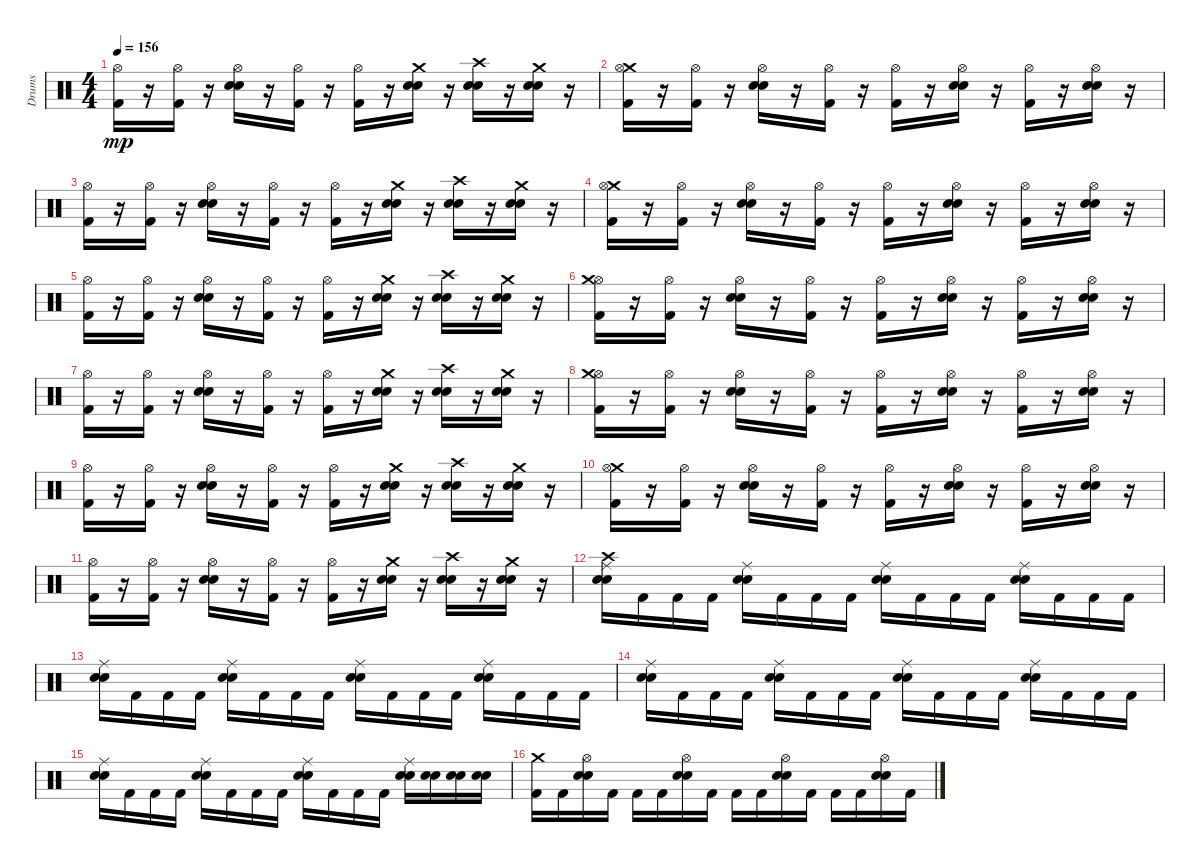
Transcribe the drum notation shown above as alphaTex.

\track ("Drums" "Drums") {instrument percussion}
\staff {score}
\articulation defaults
\ts (4 4)
\tempo 156
\clef neutral
\ks c
("Hi-Hat (open)" "Kick (hit) 2").16{dy mp} r.16 ("Kick (hit) 2" "Hi-Hat (open)").16 r.16 ("Snare (hit) 2" "Hi-Hat (open)" "Electric Snare (hit)").16 r.16 ("Hi-Hat (open)" "Kick (hit) 2").16 r.16 ("Hi-Hat (open)" "Kick (hit) 2").16 r.16 ("Electric Snare (hit)" "Crash medium (hit)" "Snare (hit) 2").16 r.16 ("Electric Snare (hit)" "Snare (hit) 2" "Crash high (hit)").16 r.16 ("Electric Snare (hit)" "Crash medium (hit)" "Snare (hit) 2").16 r.16 |
("Crash medium (hit)" "Kick (hit) 2" "Hi-Hat (open)").16 r.16 ("Hi-Hat (open)" "Kick (hit) 2").16 r.16 ("Hi-Hat (open)" "Electric Snare (hit)" "Snare (hit) 2").16 r.16 ("Hi-Hat (open)" "Kick (hit) 2").16 r.16 ("Kick (hit) 2" "Hi-Hat (open)").16 r.16 ("Snare (hit) 2" "Hi-Hat (open)" "Electric Snare (hit)").16 r.16 ("Hi-Hat (open)" "Kick (hit) 2").16 r.16 ("Electric Snare (hit)" "Hi-Hat (open)" "Snare (hit) 2").16 r.16 |
("Kick (hit) 2" "Hi-Hat (open)").16 r.16 ("Hi-Hat (open)" "Kick (hit) 2").16 r.16 ("Snare (hit) 2" "Hi-Hat (open)" "Electric Snare (hit)").16 r.16 ("Kick (hit) 2" "Hi-Hat (open)").16 r.16 ("Hi-Hat (open)" "Kick (hit) 2").16 r.16 ("Snare (hit) 2" "Crash medium (hit)" "Electric Snare (hit)").16 r.16 ("Electric Snare (hit)" "Snare (hit) 2" "Crash high (hit)").16 r.16 ("Electric Snare (hit)" "Snare (hit) 2" "Crash medium (hit)").16 r.16 |
("Crash medium (hit)" "Kick (hit) 2" "Hi-Hat (open)").16 r.16 ("Hi-Hat (open)" "Kick (hit) 2").16 r.16 ("Electric Snare (hit)" "Hi-Hat (open)" "Snare (hit) 2").16 r.16 ("Hi-Hat (open)" "Kick (hit) 2").16 r.16 ("Hi-Hat (open)" "Kick (hit) 2").16 r.16 ("Hi-Hat (open)" "Snare (hit) 2" "Electric Snare (hit)").16 r.16 ("Kick (hit) 2" "Hi-Hat (open)").16 r.16 ("Electric Snare (hit)" "Hi-Hat (open)" "Snare (hit) 2").16 r.16 |
("Hi-Hat (open)" "Kick (hit) 2").16 r.16 ("Kick (hit) 2" "Hi-Hat (open)").16 r.16 ("Electric Snare (hit)" "Snare (hit) 2" "Hi-Hat (open)").16 r.16 ("Kick (hit) 2" "Hi-Hat (open)").16 r.16 ("Hi-Hat (open)" "Kick (hit) 2").16 r.16 ("Crash medium (hit)" "Electric Snare (hit)" "Snare (hit) 2").16 r.16 ("Crash high (hit)" "Snare (hit) 2" "Electric Snare (hit)").16 r.16 ("Crash medium (hit)" "Electric Snare (hit)" "Snare (hit) 2").16 r.16 |
("Hi-Hat (open)" "Kick (hit) 2" "Crash medium (hit)").16 r.16 ("Hi-Hat (open)" "Kick (hit) 2").16 r.16 ("Snare (hit) 2" "Electric Snare (hit)" "Hi-Hat (open)").16 r.16 ("Hi-Hat (open)" "Kick (hit) 2").16 r.16 ("Kick (hit) 2" "Hi-Hat (open)").16 r.16 ("Hi-Hat (open)" "Snare (hit) 2" "Electric Snare (hit)").16 r.16 ("Kick (hit) 2" "Hi-Hat (open)").16 r.16 ("Hi-Hat (open)" "Electric Snare (hit)" "Snare (hit) 2").16 r.16 |
("Hi-Hat (open)" "Kick (hit) 2").16 r.16 ("Kick (hit) 2" "Hi-Hat (open)").16 r.16 ("Snare (hit) 2" "Hi-Hat (open)" "Electric Snare (hit)").16 r.16 ("Hi-Hat (open)" "Kick (hit) 2").16 r.16 ("Kick (hit) 2" "Hi-Hat (open)").16 r.16 ("Snare (hit) 2" "Electric Snare (hit)" "Crash medium (hit)").16 r.16 ("Snare (hit) 2" "Crash high (hit)" "Electric Snare (hit)").16 r.16 ("Crash medium (hit)" "Snare (hit) 2" "Electric Snare (hit)").16 r.16 |
("Hi-Hat (open)" "Crash medium (hit)" "Kick (hit) 2").16 r.16 ("Kick (hit) 2" "Hi-Hat (open)").16 r.16 ("Snare (hit) 2" "Hi-Hat (open)" "Electric Snare (hit)").16 r.16 ("Kick (hit) 2" "Hi-Hat (open)").16 r.16 ("Hi-Hat (open)" "Kick (hit) 2").16 r.16 ("Hi-Hat (open)" "Electric Snare (hit)" "Snare (hit) 2").16 r.16 ("Kick (hit) 2" "Hi-Hat (open)").16 r.16 ("Hi-Hat (open)" "Snare (hit) 2" "Electric Snare (hit)").16 r.16 |
("Kick (hit) 2" "Hi-Hat (open)").16 r.16 ("Kick (hit) 2" "Hi-Hat (open)").16 r.16 ("Snare (hit) 2" "Hi-Hat (open)" "Electric Snare (hit)").16 r.16 ("Hi-Hat (open)" "Kick (hit) 2").16 r.16 ("Hi-Hat (open)" "Kick (hit) 2").16 r.16 ("Snare (hit) 2" "Crash medium (hit)" "Electric Snare (hit)").16 r.16 ("Electric Snare (hit)" "Crash high (hit)" "Snare (hit) 2").16 r.16 ("Snare (hit) 2" "Crash medium (hit)" "Electric Snare (hit)").16 r.16 |
("Crash medium (hit)" "Kick (hit) 2" "Hi-Hat (open)").16 r.16 ("Kick (hit) 2" "Hi-Hat (open)").16 r.16 ("Snare (hit) 2" "Hi-Hat (open)" "Electric Snare (hit)").16 r.16 ("Kick (hit) 2" "Hi-Hat (open)").16 r.16 ("Kick (hit) 2" "Hi-Hat (open)").16 r.16 ("Snare (hit) 2" "Hi-Hat (open)" "Electric Snare (hit)").16 r.16 ("Kick (hit) 2" "Hi-Hat (open)").16 r.16 ("Snare (hit) 2" "Electric Snare (hit)" "Hi-Hat (open)").16 r.16 |
("Kick (hit) 2" "Hi-Hat (open)").16 r.16 ("Hi-Hat (open)" "Kick (hit) 2").16 r.16 ("Electric Snare (hit)" "Hi-Hat (open)" "Snare (hit) 2").16 r.16 ("Hi-Hat (open)" "Kick (hit) 2").16 r.16 ("Hi-Hat (open)" "Kick (hit) 2").16 r.16 ("Snare (hit) 2" "Crash medium (hit)" "Electric Snare (hit)").16 r.16 ("Electric Snare (hit)" "Crash high (hit)" "Snare (hit) 2").16 r.16 ("Snare (hit) 2" "Electric Snare (hit)" "Crash medium (hit)").16 r.16 |
("Ride (middle)" "Snare (hit) 2" "Crash high (hit)" "Electric Snare (hit)").16 "Kick (hit) 2".16 "Kick (hit) 2".16 "Kick (hit) 2".16 ("Ride (middle)" "Electric Snare (hit)" "Snare (hit) 2").16 "Kick (hit) 2".16 "Kick (hit) 2".16 "Kick (hit) 2".16 ("Snare (hit) 2" "Ride (middle)" "Electric Snare (hit)").16 "Kick (hit) 2".16 "Kick (hit) 2".16 "Kick (hit) 2".16 ("Ride (middle)" "Electric Snare (hit)" "Snare (hit) 2").16 "Kick (hit) 2".16 "Kick (hit) 2".16 "Kick (hit) 2".16 |
("Ride (middle)" "Electric Snare (hit)" "Snare (hit) 2").16 "Kick (hit) 2".16 "Kick (hit) 2".16 "Kick (hit) 2".16 ("Snare (hit) 2" "Electric Snare (hit)" "Ride (middle)").16 "Kick (hit) 2".16 "Kick (hit) 2".16 "Kick (hit) 2".16 ("Electric Snare (hit)" "Snare (hit) 2" "Ride (middle)").16 "Kick (hit) 2".16 "Kick (hit) 2".16 "Kick (hit) 2".16 ("Ride (middle)" "Electric Snare (hit)" "Snare (hit) 2").16 "Kick (hit) 2".16 "Kick (hit) 2".16 "Kick (hit) 2".16 |
("Electric Snare (hit)" "Snare (hit) 2" "Ride (middle)").16 "Kick (hit) 2".16 "Kick (hit) 2".16 "Kick (hit) 2".16 ("Ride (middle)" "Snare (hit) 2" "Electric Snare (hit)").16 "Kick (hit) 2".16 "Kick (hit) 2".16 "Kick (hit) 2".16 ("Ride (middle)" "Electric Snare (hit)" "Snare (hit) 2").16 "Kick (hit) 2".16 "Kick (hit) 2".16 "Kick (hit) 2".16 ("Ride (middle)" "Snare (hit) 2" "Electric Snare (hit)").16 "Kick (hit) 2".16 "Kick (hit) 2".16 "Kick (hit) 2".16 |
("Snare (hit) 2" "Ride (middle)" "Electric Snare (hit)").16 "Kick (hit) 2".16 "Kick (hit) 2".16 "Kick (hit) 2".16 ("Ride (middle)" "Snare (hit) 2" "Electric Snare (hit)").16 "Kick (hit) 2".16 "Kick (hit) 2".16 "Kick (hit) 2".16 ("Snare (hit) 2" "Ride (middle)" "Electric Snare (hit)").16 "Kick (hit) 2".16 "Kick (hit) 2".16 "Kick (hit) 2".16 ("Ride (middle)" "Electric Snare (hit)" "Snare (hit) 2").16 ("Electric Snare (hit)" "Snare (hit) 2").16 ("Snare (hit) 2" "Electric Snare (hit)").16 ("Electric Snare (hit)" "Snare (hit) 2").16 |
("Crash medium (hit)" "Kick (hit) 2").16 "Kick (hit) 2".16 ("Hi-Hat (open)" "Snare (hit) 2" "Electric Snare (hit)").16 "Kick (hit) 2".16 "Kick (hit) 2".16 "Kick (hit) 2".16 ("Electric Snare (hit)" "Hi-Hat (open)" "Snare (hit) 2").16 "Kick (hit) 2".16 "Kick (hit) 2".16 "Kick (hit) 2".16 ("Electric Snare (hit)" "Snare (hit) 2" "Hi-Hat (open)").16 "Kick (hit) 2".16 "Kick (hit) 2".16 "Kick (hit) 2".16 ("Hi-Hat (open)" "Electric Snare (hit)" "Snare (hit) 2").16 "Kick (hit) 2".16
